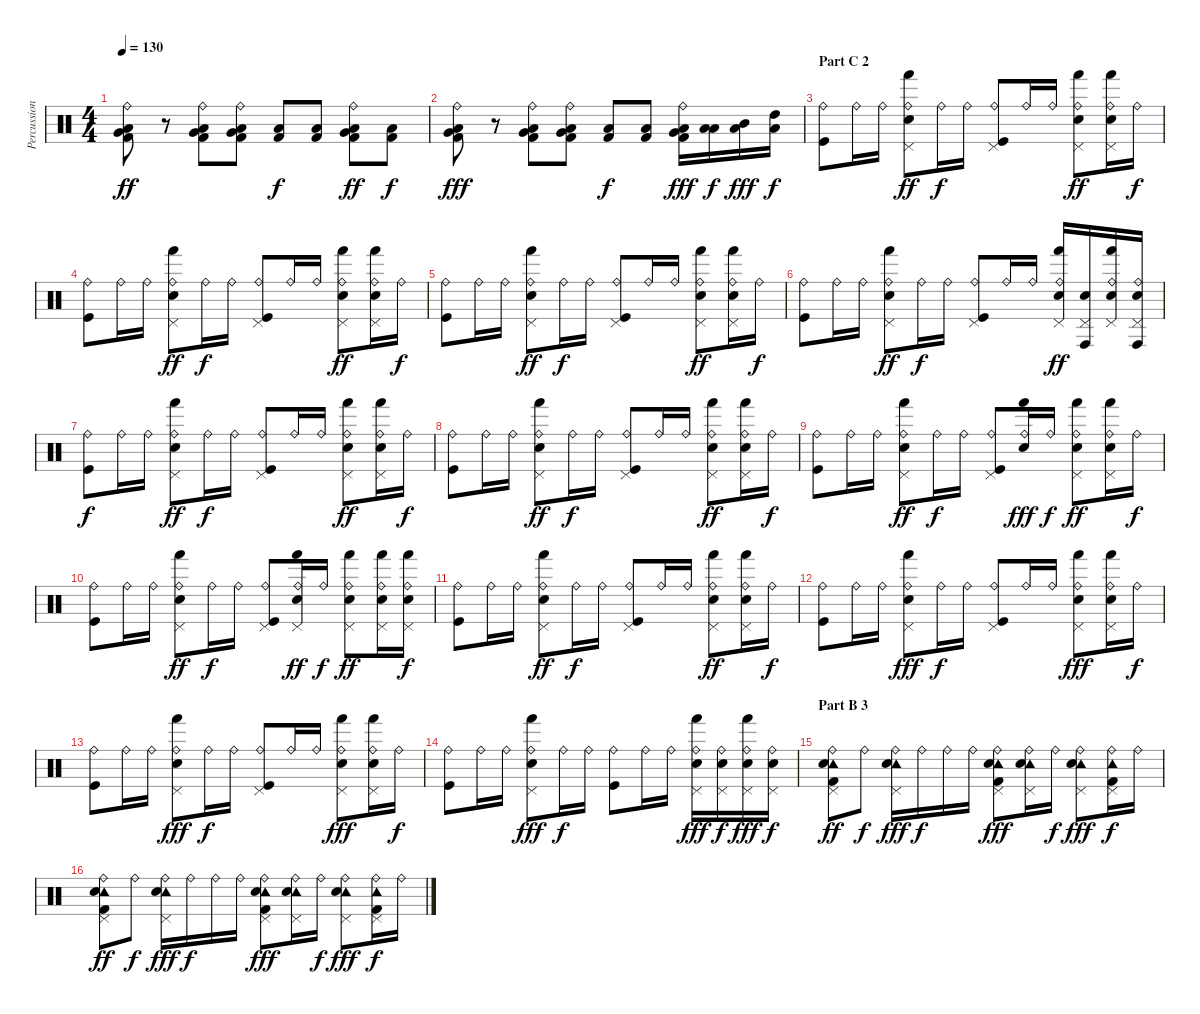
\track ("Percussion" "Percussion") {instrument percussion}
\staff {score}
\articulation defaults
\ts (4 4)
\tempo 130
\clef neutral
\ks c
("Ride (bell)" "Very Low Tom (hit)" "Low Floor Tom (hit)" "Kick (hit) 2").8{dy ff} r.8 ("Ride (bell)" "Very Low Tom (hit)" "Low Floor Tom (hit)" "Kick (hit) 2").8 ("Ride (bell)" "Very Low Tom (hit)" "Low Floor Tom (hit)" "Kick (hit) 2").8 ("Low Floor Tom (hit)" "Kick (hit) 2").8{dy f} ("Low Floor Tom (hit)" "Kick (hit) 2").8 ("Ride (bell)" "Very Low Tom (hit)" "Low Floor Tom (hit)" "Kick (hit) 2").8{dy ff} ("Low Floor Tom (hit)" "Kick (hit) 2").8{dy f} |
("Ride (bell)" "Very Low Tom (hit)" "Low Floor Tom (hit)" "Kick (hit) 2").8{dy fff} r.8 ("Ride (bell)" "Very Low Tom (hit)" "Low Floor Tom (hit)" "Kick (hit) 2").8 ("Ride (bell)" "Very Low Tom (hit)" "Low Floor Tom (hit)" "Kick (hit) 2").8 ("Low Floor Tom (hit)" "Kick (hit) 2").8{dy f} ("Low Floor Tom (hit)" "Kick (hit) 2").8 ("Ride (bell)" "Very Low Tom (hit)" "Low Floor Tom (hit)" "Kick (hit) 2").16{dy fff} ("Low Tom (hit)" "Low Floor Tom (hit)").16{dy f} ("Mid Tom (hit)" "Low Floor Tom (hit)").16{dy fff} ("High Tom (hit)" "Low Floor Tom (hit)").16{dy f} |
\section ("" "Part C 2")
("Ride (bell)" "Kick (hit)").8 "Ride (bell)".16 "Ride (bell)".16 ("Ride (bell)" "Pedal Hi-Hat (hit)" "Hand (hit)" "Electric Snare (hit)").8{dy ff} "Ride (bell)".16{dy f} "Ride (bell)".16 ("Ride (bell)" "Pedal Hi-Hat (hit)" "Kick (hit)").8 "Ride (bell)".16 "Ride (bell)".16 ("Ride (bell)" "Pedal Hi-Hat (hit)" "Hand (hit)" "Electric Snare (hit)").8{dy ff} ("Ride (bell)" "Pedal Hi-Hat (hit)" "Hand (hit)" "Electric Snare (hit)").16 "Ride (bell)".16{dy f} |
("Ride (bell)" "Kick (hit)").8 "Ride (bell)".16 "Ride (bell)".16 ("Ride (bell)" "Pedal Hi-Hat (hit)" "Hand (hit)" "Electric Snare (hit)").8{dy ff} "Ride (bell)".16{dy f} "Ride (bell)".16 ("Ride (bell)" "Pedal Hi-Hat (hit)" "Kick (hit)").8 "Ride (bell)".16 "Ride (bell)".16 ("Ride (bell)" "Pedal Hi-Hat (hit)" "Hand (hit)" "Electric Snare (hit)").8{dy ff} ("Ride (bell)" "Pedal Hi-Hat (hit)" "Hand (hit)" "Electric Snare (hit)").16 "Ride (bell)".16{dy f} |
("Ride (bell)" "Kick (hit)").8 "Ride (bell)".16 "Ride (bell)".16 ("Ride (bell)" "Pedal Hi-Hat (hit)" "Hand (hit)" "Electric Snare (hit)").8{dy ff} "Ride (bell)".16{dy f} "Ride (bell)".16 ("Ride (bell)" "Pedal Hi-Hat (hit)" "Kick (hit)").8 "Ride (bell)".16 "Ride (bell)".16 ("Ride (bell)" "Pedal Hi-Hat (hit)" "Hand (hit)" "Electric Snare (hit)").8{dy ff} ("Ride (bell)" "Pedal Hi-Hat (hit)" "Hand (hit)" "Electric Snare (hit)").16 "Ride (bell)".16{dy f} |
("Ride (bell)" "Kick (hit)").8 "Ride (bell)".16 "Ride (bell)".16 ("Ride (bell)" "Pedal Hi-Hat (hit)" "Hand (hit)" "Electric Snare (hit)").8{dy ff} "Ride (bell)".16{dy f} "Ride (bell)".16 ("Ride (bell)" "Pedal Hi-Hat (hit)" "Kick (hit)").8 "Ride (bell)".16 "Ride (bell)".16 ("Ride (bell)" "Pedal Hi-Hat (hit)" "Hand (hit)" "Electric Snare (hit)").16{dy ff} ("Pedal Hi-Hat (hit)" "Conga high (hit)" "Electric Snare (hit)").16 ("Ride (bell)" "Pedal Hi-Hat (hit)" "Hand (hit)" "Electric Snare (hit)").16 ("Ride (bell)" "Pedal Hi-Hat (hit)" "Conga high (hit)" "Electric Snare (hit)").16 |
("Ride (bell)" "Kick (hit)").8{dy f} "Ride (bell)".16 "Ride (bell)".16 ("Ride (bell)" "Pedal Hi-Hat (hit)" "Hand (hit)" "Electric Snare (hit)").8{dy ff} "Ride (bell)".16{dy f} "Ride (bell)".16 ("Ride (bell)" "Pedal Hi-Hat (hit)" "Kick (hit)").8 "Ride (bell)".16 "Ride (bell)".16 ("Ride (bell)" "Pedal Hi-Hat (hit)" "Hand (hit)" "Electric Snare (hit)").8{dy ff} ("Ride (bell)" "Pedal Hi-Hat (hit)" "Hand (hit)" "Electric Snare (hit)").16 "Ride (bell)".16{dy f} |
("Ride (bell)" "Kick (hit)").8 "Ride (bell)".16 "Ride (bell)".16 ("Ride (bell)" "Pedal Hi-Hat (hit)" "Hand (hit)" "Electric Snare (hit)").8{dy ff} "Ride (bell)".16{dy f} "Ride (bell)".16 ("Ride (bell)" "Pedal Hi-Hat (hit)" "Kick (hit)").8 "Ride (bell)".16 "Ride (bell)".16 ("Ride (bell)" "Pedal Hi-Hat (hit)" "Hand (hit)" "Electric Snare (hit)").8{dy ff} ("Ride (bell)" "Pedal Hi-Hat (hit)" "Hand (hit)" "Electric Snare (hit)").16 "Ride (bell)".16{dy f} |
("Ride (bell)" "Kick (hit)").8 "Ride (bell)".16 "Ride (bell)".16 ("Ride (bell)" "Pedal Hi-Hat (hit)" "Hand (hit)" "Electric Snare (hit)").8{dy ff} "Ride (bell)".16{dy f} "Ride (bell)".16 ("Ride (bell)" "Pedal Hi-Hat (hit)" "Kick (hit)").8 ("Ride (bell)" "Hand (hit)" "Electric Snare (hit)").16{dy fff} "Ride (bell)".16{dy f} ("Ride (bell)" "Pedal Hi-Hat (hit)" "Hand (hit)" "Electric Snare (hit)").8{dy ff} ("Ride (bell)" "Pedal Hi-Hat (hit)" "Hand (hit)" "Electric Snare (hit)").16 "Ride (bell)".16{dy f} |
("Ride (bell)" "Kick (hit)").8 "Ride (bell)".16 "Ride (bell)".16 ("Ride (bell)" "Pedal Hi-Hat (hit)" "Hand (hit)" "Electric Snare (hit)").8{dy ff} "Ride (bell)".16{dy f} "Ride (bell)".16 ("Ride (bell)" "Pedal Hi-Hat (hit)" "Kick (hit)").8 ("Ride (bell)" "Pedal Hi-Hat (hit)" "Hand (hit)" "Electric Snare (hit)").16{dy ff} "Ride (bell)".16{dy f} ("Ride (bell)" "Pedal Hi-Hat (hit)" "Hand (hit)" "Electric Snare (hit)").8{dy ff} ("Ride (bell)" "Pedal Hi-Hat (hit)" "Hand (hit)" "Electric Snare (hit)").16 ("Ride (bell)" "Pedal Hi-Hat (hit)" "Hand (hit)" "Electric Snare (hit)").16{dy f} |
("Ride (bell)" "Kick (hit)").8 "Ride (bell)".16 "Ride (bell)".16 ("Ride (bell)" "Pedal Hi-Hat (hit)" "Hand (hit)" "Electric Snare (hit)").8{dy ff} "Ride (bell)".16{dy f} "Ride (bell)".16 ("Ride (bell)" "Pedal Hi-Hat (hit)" "Kick (hit)").8 "Ride (bell)".16 "Ride (bell)".16 ("Ride (bell)" "Pedal Hi-Hat (hit)" "Hand (hit)" "Electric Snare (hit)").8{dy ff} ("Ride (bell)" "Pedal Hi-Hat (hit)" "Hand (hit)" "Electric Snare (hit)").16 "Ride (bell)".16{dy f} |
("Ride (bell)" "Kick (hit)").8 "Ride (bell)".16 "Ride (bell)".16 ("Ride (bell)" "Pedal Hi-Hat (hit)" "Hand (hit)" "Electric Snare (hit)").8{dy fff} "Ride (bell)".16{dy f} "Ride (bell)".16 ("Ride (bell)" "Pedal Hi-Hat (hit)" "Kick (hit)").8 "Ride (bell)".16 "Ride (bell)".16 ("Ride (bell)" "Pedal Hi-Hat (hit)" "Hand (hit)" "Electric Snare (hit)").8{dy fff} ("Ride (bell)" "Pedal Hi-Hat (hit)" "Hand (hit)" "Electric Snare (hit)").16 "Ride (bell)".16{dy f} |
("Ride (bell)" "Kick (hit)").8 "Ride (bell)".16 "Ride (bell)".16 ("Ride (bell)" "Pedal Hi-Hat (hit)" "Hand (hit)" "Electric Snare (hit)").8{dy fff} "Ride (bell)".16{dy f} "Ride (bell)".16 ("Ride (bell)" "Pedal Hi-Hat (hit)" "Kick (hit)").8 "Ride (bell)".16 "Ride (bell)".16 ("Ride (bell)" "Pedal Hi-Hat (hit)" "Hand (hit)" "Electric Snare (hit)").8{dy fff} ("Ride (bell)" "Pedal Hi-Hat (hit)" "Hand (hit)" "Electric Snare (hit)").16 "Ride (bell)".16{dy f} |
("Ride (bell)" "Kick (hit)").8 "Ride (bell)".16 "Ride (bell)".16 ("Ride (bell)" "Pedal Hi-Hat (hit)" "Hand (hit)" "Electric Snare (hit)").8{dy fff} "Ride (bell)".16{dy f} "Ride (bell)".16 ("Ride (bell)" "Kick (hit)").8 "Ride (bell)".16 "Ride (bell)".16 ("Ride (bell)" "Pedal Hi-Hat (hit)" "Hand (hit)" "Electric Snare (hit)").16{dy fff} ("Ride (bell)" "Pedal Hi-Hat (hit)" "Electric Snare (hit)").16{dy f} ("Ride (bell)" "Pedal Hi-Hat (hit)" "Hand (hit)" "Electric Snare (hit)").16{dy fff} ("Ride (bell)" "Pedal Hi-Hat (hit)" "Electric Snare (hit)").16{dy f} |
\section ("" "Part B 3")
("Ride (bell)" "Pedal Hi-Hat (hit)" "Tambourine (hit)" "Electric Snare (hit)" "Kick (hit) 2").8{dy ff} "Ride (bell)".8{dy f} ("Ride (bell)" "Pedal Hi-Hat (hit)" "Tambourine (hit)" "Electric Snare (hit)").16{dy fff} "Ride (bell)".16{dy f} "Ride (bell)".16 "Ride (bell)".16 ("Ride (bell)" "Pedal Hi-Hat (hit)" "Tambourine (hit)" "Electric Snare (hit)" "Kick (hit) 2").8{dy fff} ("Ride (bell)" "Pedal Hi-Hat (hit)" "Tambourine (hit)" "Electric Snare (hit)").16 "Ride (bell)".16{dy f} ("Ride (bell)" "Pedal Hi-Hat (hit)" "Tambourine (hit)" "Electric Snare (hit)").8{dy fff} ("Ride (bell)" "Pedal Hi-Hat (hit)" "Tambourine (hit)" "Kick (hit) 2").16{dy f} "Ride (bell)".16 |
("Ride (bell)" "Pedal Hi-Hat (hit)" "Tambourine (hit)" "Electric Snare (hit)" "Kick (hit) 2").8{dy ff} "Ride (bell)".8{dy f} ("Ride (bell)" "Pedal Hi-Hat (hit)" "Tambourine (hit)" "Electric Snare (hit)").16{dy fff} "Ride (bell)".16{dy f} "Ride (bell)".16 "Ride (bell)".16 ("Ride (bell)" "Pedal Hi-Hat (hit)" "Tambourine (hit)" "Electric Snare (hit)" "Kick (hit) 2").8{dy fff} ("Ride (bell)" "Pedal Hi-Hat (hit)" "Tambourine (hit)" "Electric Snare (hit)").16 "Ride (bell)".16{dy f} ("Ride (bell)" "Pedal Hi-Hat (hit)" "Tambourine (hit)" "Electric Snare (hit)").8{dy fff} ("Ride (bell)" "Pedal Hi-Hat (hit)" "Tambourine (hit)" "Kick (hit) 2").16{dy f} "Ride (bell)".16
